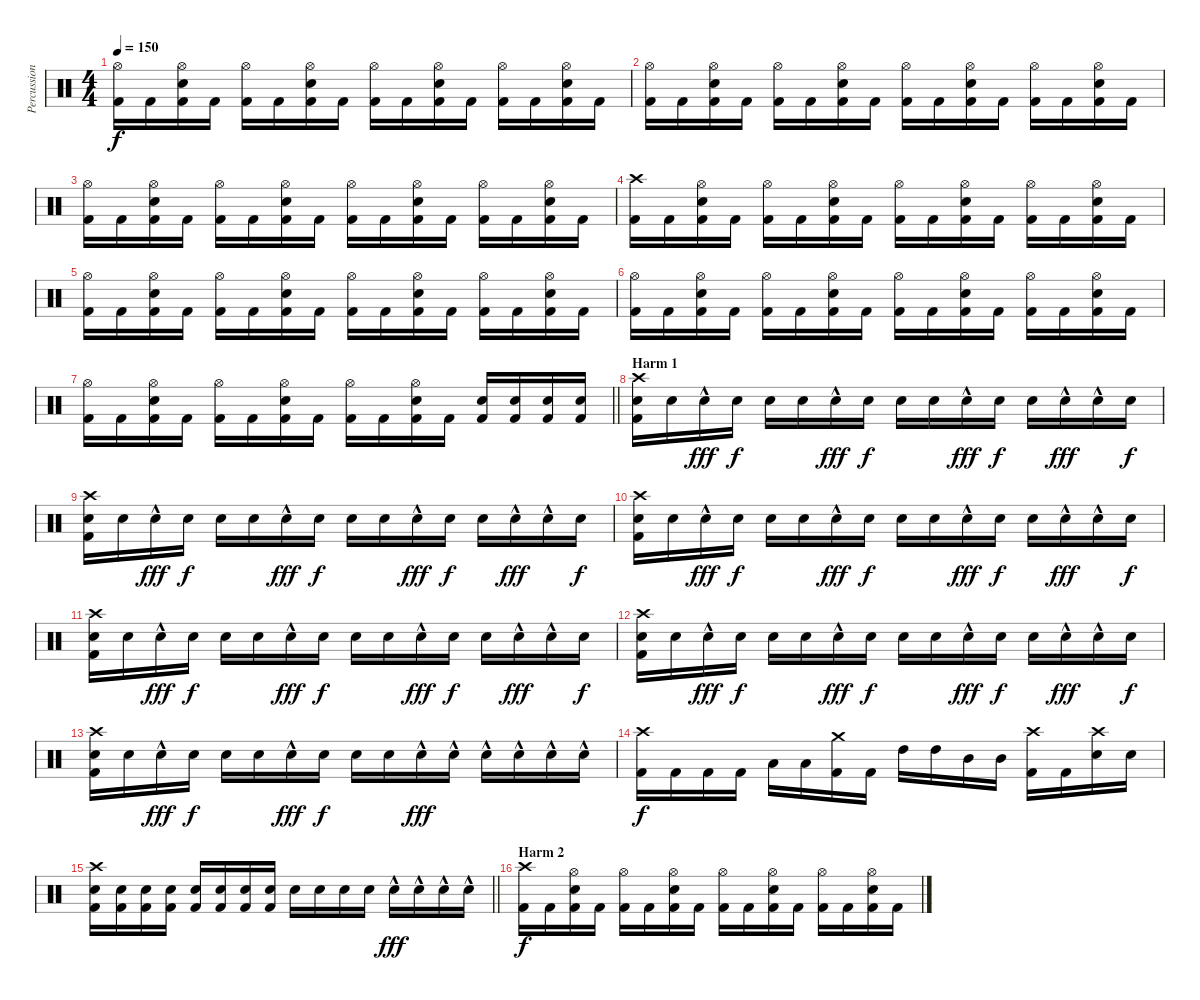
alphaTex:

\track ("Percussion" "Percussion") {instrument percussion}
\staff {score}
\articulation defaults
\ts (4 4)
\tempo 150
\clef neutral
\ks c
("Hi-Hat (open)" "Kick (hit) 2").16{dy f} "Kick (hit) 2".16 ("Hi-Hat (open)" "Snare (hit) 2" "Kick (hit) 2").16 "Kick (hit) 2".16 ("Hi-Hat (open)" "Kick (hit) 2").16 "Kick (hit) 2".16 ("Hi-Hat (open)" "Snare (hit) 2" "Kick (hit) 2").16 "Kick (hit) 2".16 ("Hi-Hat (open)" "Kick (hit) 2").16 "Kick (hit) 2".16 ("Hi-Hat (open)" "Snare (hit) 2" "Kick (hit) 2").16 "Kick (hit) 2".16 ("Hi-Hat (open)" "Kick (hit) 2").16 "Kick (hit) 2".16 ("Hi-Hat (open)" "Snare (hit) 2" "Kick (hit) 2").16 "Kick (hit) 2".16 |
("Hi-Hat (open)" "Kick (hit) 2").16 "Kick (hit) 2".16 ("Hi-Hat (open)" "Snare (hit) 2" "Kick (hit) 2").16 "Kick (hit) 2".16 ("Hi-Hat (open)" "Kick (hit) 2").16 "Kick (hit) 2".16 ("Hi-Hat (open)" "Snare (hit) 2" "Kick (hit) 2").16 "Kick (hit) 2".16 ("Hi-Hat (open)" "Kick (hit) 2").16 "Kick (hit) 2".16 ("Hi-Hat (open)" "Snare (hit) 2" "Kick (hit) 2").16 "Kick (hit) 2".16 ("Hi-Hat (open)" "Kick (hit) 2").16 "Kick (hit) 2".16 ("Hi-Hat (open)" "Snare (hit) 2" "Kick (hit) 2").16 "Kick (hit) 2".16 |
("Hi-Hat (open)" "Kick (hit) 2").16 "Kick (hit) 2".16 ("Hi-Hat (open)" "Snare (hit) 2" "Kick (hit) 2").16 "Kick (hit) 2".16 ("Hi-Hat (open)" "Kick (hit) 2").16 "Kick (hit) 2".16 ("Hi-Hat (open)" "Snare (hit) 2" "Kick (hit) 2").16 "Kick (hit) 2".16 ("Hi-Hat (open)" "Kick (hit) 2").16 "Kick (hit) 2".16 ("Hi-Hat (open)" "Snare (hit) 2" "Kick (hit) 2").16 "Kick (hit) 2".16 ("Hi-Hat (open)" "Kick (hit) 2").16 "Kick (hit) 2".16 ("Hi-Hat (open)" "Snare (hit) 2" "Kick (hit) 2").16 "Kick (hit) 2".16 |
("Crash high (hit)" "Kick (hit) 2").16 "Kick (hit) 2".16 ("Hi-Hat (open)" "Snare (hit) 2" "Kick (hit) 2").16 "Kick (hit) 2".16 ("Hi-Hat (open)" "Kick (hit) 2").16 "Kick (hit) 2".16 ("Hi-Hat (open)" "Snare (hit) 2" "Kick (hit) 2").16 "Kick (hit) 2".16 ("Hi-Hat (open)" "Kick (hit) 2").16 "Kick (hit) 2".16 ("Hi-Hat (open)" "Snare (hit) 2" "Kick (hit) 2").16 "Kick (hit) 2".16 ("Hi-Hat (open)" "Kick (hit) 2").16 "Kick (hit) 2".16 ("Hi-Hat (open)" "Snare (hit) 2" "Kick (hit) 2").16 "Kick (hit) 2".16 |
("Hi-Hat (open)" "Kick (hit) 2").16 "Kick (hit) 2".16 ("Hi-Hat (open)" "Snare (hit) 2" "Kick (hit) 2").16 "Kick (hit) 2".16 ("Hi-Hat (open)" "Kick (hit) 2").16 "Kick (hit) 2".16 ("Hi-Hat (open)" "Snare (hit) 2" "Kick (hit) 2").16 "Kick (hit) 2".16 ("Hi-Hat (open)" "Kick (hit) 2").16 "Kick (hit) 2".16 ("Hi-Hat (open)" "Snare (hit) 2" "Kick (hit) 2").16 "Kick (hit) 2".16 ("Hi-Hat (open)" "Kick (hit) 2").16 "Kick (hit) 2".16 ("Hi-Hat (open)" "Snare (hit) 2" "Kick (hit) 2").16 "Kick (hit) 2".16 |
("Hi-Hat (open)" "Kick (hit) 2").16 "Kick (hit) 2".16 ("Hi-Hat (open)" "Snare (hit) 2" "Kick (hit) 2").16 "Kick (hit) 2".16 ("Hi-Hat (open)" "Kick (hit) 2").16 "Kick (hit) 2".16 ("Hi-Hat (open)" "Snare (hit) 2" "Kick (hit) 2").16 "Kick (hit) 2".16 ("Hi-Hat (open)" "Kick (hit) 2").16 "Kick (hit) 2".16 ("Hi-Hat (open)" "Snare (hit) 2" "Kick (hit) 2").16 "Kick (hit) 2".16 ("Hi-Hat (open)" "Kick (hit) 2").16 "Kick (hit) 2".16 ("Hi-Hat (open)" "Snare (hit) 2" "Kick (hit) 2").16 "Kick (hit) 2".16 |
\barLineRight lightlight
("Hi-Hat (open)" "Kick (hit) 2").16 "Kick (hit) 2".16 ("Hi-Hat (open)" "Snare (hit) 2" "Kick (hit) 2").16 "Kick (hit) 2".16 ("Hi-Hat (open)" "Kick (hit) 2").16 "Kick (hit) 2".16 ("Hi-Hat (open)" "Snare (hit) 2" "Kick (hit) 2").16 "Kick (hit) 2".16 ("Hi-Hat (open)" "Kick (hit) 2").16 "Kick (hit) 2".16 ("Hi-Hat (open)" "Snare (hit) 2" "Kick (hit) 2").16 "Kick (hit) 2".16 ("Snare (hit) 2" "Kick (hit) 2").16 ("Snare (hit) 2" "Kick (hit) 2").16 ("Snare (hit) 2" "Kick (hit) 2").16 ("Snare (hit) 2" "Kick (hit) 2").16 |
\section ("" "Harm 1")
("Crash high (hit)" "Snare (hit) 2" "Kick (hit) 2").16 "Snare (hit) 2".16 "Snare (hit) 2"{hac}.16{dy fff} "Snare (hit) 2".16{dy f} "Snare (hit) 2".16 "Snare (hit) 2".16 "Snare (hit) 2"{hac}.16{dy fff} "Snare (hit) 2".16{dy f} "Snare (hit) 2".16 "Snare (hit) 2".16 "Snare (hit) 2"{hac}.16{dy fff} "Snare (hit) 2".16{dy f} "Snare (hit) 2".16 "Snare (hit) 2"{hac}.16{dy fff} "Snare (hit) 2"{hac}.16 "Snare (hit) 2".16{dy f} |
("Crash high (hit)" "Snare (hit) 2" "Kick (hit) 2").16 "Snare (hit) 2".16 "Snare (hit) 2"{hac}.16{dy fff} "Snare (hit) 2".16{dy f} "Snare (hit) 2".16 "Snare (hit) 2".16 "Snare (hit) 2"{hac}.16{dy fff} "Snare (hit) 2".16{dy f} "Snare (hit) 2".16 "Snare (hit) 2".16 "Snare (hit) 2"{hac}.16{dy fff} "Snare (hit) 2".16{dy f} "Snare (hit) 2".16 "Snare (hit) 2"{hac}.16{dy fff} "Snare (hit) 2"{hac}.16 "Snare (hit) 2".16{dy f} |
("Crash high (hit)" "Snare (hit) 2" "Kick (hit) 2").16 "Snare (hit) 2".16 "Snare (hit) 2"{hac}.16{dy fff} "Snare (hit) 2".16{dy f} "Snare (hit) 2".16 "Snare (hit) 2".16 "Snare (hit) 2"{hac}.16{dy fff} "Snare (hit) 2".16{dy f} "Snare (hit) 2".16 "Snare (hit) 2".16 "Snare (hit) 2"{hac}.16{dy fff} "Snare (hit) 2".16{dy f} "Snare (hit) 2".16 "Snare (hit) 2"{hac}.16{dy fff} "Snare (hit) 2"{hac}.16 "Snare (hit) 2".16{dy f} |
("Crash high (hit)" "Snare (hit) 2" "Kick (hit) 2").16 "Snare (hit) 2".16 "Snare (hit) 2"{hac}.16{dy fff} "Snare (hit) 2".16{dy f} "Snare (hit) 2".16 "Snare (hit) 2".16 "Snare (hit) 2"{hac}.16{dy fff} "Snare (hit) 2".16{dy f} "Snare (hit) 2".16 "Snare (hit) 2".16 "Snare (hit) 2"{hac}.16{dy fff} "Snare (hit) 2".16{dy f} "Snare (hit) 2".16 "Snare (hit) 2"{hac}.16{dy fff} "Snare (hit) 2"{hac}.16 "Snare (hit) 2".16{dy f} |
("Crash high (hit)" "Snare (hit) 2" "Kick (hit) 2").16 "Snare (hit) 2".16 "Snare (hit) 2"{hac}.16{dy fff} "Snare (hit) 2".16{dy f} "Snare (hit) 2".16 "Snare (hit) 2".16 "Snare (hit) 2"{hac}.16{dy fff} "Snare (hit) 2".16{dy f} "Snare (hit) 2".16 "Snare (hit) 2".16 "Snare (hit) 2"{hac}.16{dy fff} "Snare (hit) 2".16{dy f} "Snare (hit) 2".16 "Snare (hit) 2"{hac}.16{dy fff} "Snare (hit) 2"{hac}.16 "Snare (hit) 2".16{dy f} |
("Crash high (hit)" "Snare (hit) 2" "Kick (hit) 2").16 "Snare (hit) 2".16 "Snare (hit) 2"{hac}.16{dy fff} "Snare (hit) 2".16{dy f} "Snare (hit) 2".16 "Snare (hit) 2".16 "Snare (hit) 2"{hac}.16{dy fff} "Snare (hit) 2".16{dy f} "Snare (hit) 2".16 "Snare (hit) 2".16 "Snare (hit) 2"{hac}.16{dy fff} "Snare (hit) 2"{hac}.16 "Snare (hit) 2"{hac}.16 "Snare (hit) 2"{hac}.16 "Snare (hit) 2"{hac}.16 "Snare (hit) 2"{hac}.16 |
("Crash high (hit)" "Kick (hit) 2").16{dy f} "Kick (hit) 2".16 "Kick (hit) 2".16 "Kick (hit) 2".16 "Low Floor Tom (hit)".16 "Low Floor Tom (hit)".16 ("Crash medium (hit)" "Kick (hit) 2").16 "Kick (hit) 2".16 "High Tom (hit)".16 "High Tom (hit)".16 "Mid Tom (hit)".16 "Mid Tom (hit)".16 ("Crash high (hit)" "Kick (hit) 2").16 "Kick (hit) 2".16 ("Crash high (hit)" "Snare (hit) 2").16 "Snare (hit) 2".16 |
\barLineRight lightlight
("Crash high (hit)" "Snare (hit) 2" "Kick (hit) 2").16 ("Snare (hit) 2" "Kick (hit) 2").16 ("Snare (hit) 2" "Kick (hit) 2").16 ("Snare (hit) 2" "Kick (hit) 2").16 ("Snare (hit) 2" "Kick (hit) 2").16 ("Snare (hit) 2" "Kick (hit) 2").16 ("Snare (hit) 2" "Kick (hit) 2").16 ("Snare (hit) 2" "Kick (hit) 2").16 "Snare (hit) 2".16 "Snare (hit) 2".16 "Snare (hit) 2".16 "Snare (hit) 2".16 "Snare (hit) 2"{hac}.16{dy fff} "Snare (hit) 2"{hac}.16 "Snare (hit) 2"{hac}.16 "Snare (hit) 2"{hac}.16 |
\section ("" "Harm 2")
("Crash high (hit)" "Kick (hit) 2").16{dy f} "Kick (hit) 2".16 ("Hi-Hat (open)" "Snare (hit) 2" "Kick (hit) 2").16 "Kick (hit) 2".16 ("Hi-Hat (open)" "Kick (hit) 2").16 "Kick (hit) 2".16 ("Hi-Hat (open)" "Snare (hit) 2" "Kick (hit) 2").16 "Kick (hit) 2".16 ("Hi-Hat (open)" "Kick (hit) 2").16 "Kick (hit) 2".16 ("Hi-Hat (open)" "Snare (hit) 2" "Kick (hit) 2").16 "Kick (hit) 2".16 ("Hi-Hat (open)" "Kick (hit) 2").16 "Kick (hit) 2".16 ("Hi-Hat (open)" "Snare (hit) 2" "Kick (hit) 2").16 "Kick (hit) 2".16
